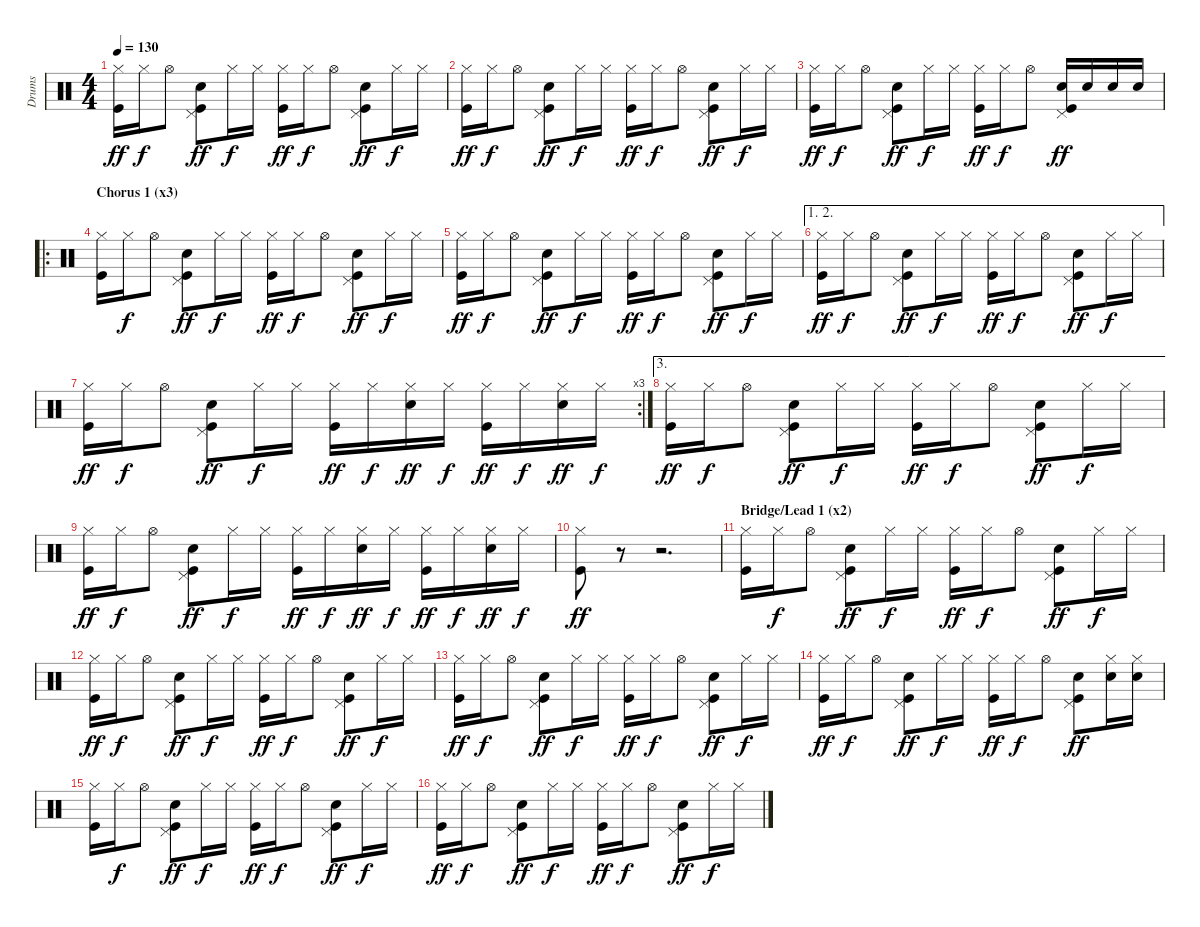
\track ("Drums" "Drums") {instrument percussion}
\staff {score}
\articulation defaults
\ts (4 4)
\tempo 130
\clef neutral
\ks c
("Hi-Hat (closed)" "Kick (hit)").16{dy ff} "Hi-Hat (closed)".16{dy f} "Hi-Hat (open)".8 ("Pedal Hi-Hat (hit)" "Electric Snare (hit)" "Kick (hit)").8{dy ff} "Hi-Hat (closed)".16{dy f} "Hi-Hat (closed)".16 ("Hi-Hat (closed)" "Kick (hit)").16{dy ff} "Hi-Hat (closed)".16{dy f} "Hi-Hat (open)".8 ("Pedal Hi-Hat (hit)" "Electric Snare (hit)" "Kick (hit)").8{dy ff} "Hi-Hat (closed)".16{dy f} "Hi-Hat (closed)".16 |
("Hi-Hat (closed)" "Kick (hit)").16{dy ff} "Hi-Hat (closed)".16{dy f} "Hi-Hat (open)".8 ("Pedal Hi-Hat (hit)" "Electric Snare (hit)" "Kick (hit)").8{dy ff} "Hi-Hat (closed)".16{dy f} "Hi-Hat (closed)".16 ("Hi-Hat (closed)" "Kick (hit)").16{dy ff} "Hi-Hat (closed)".16{dy f} "Hi-Hat (open)".8 ("Pedal Hi-Hat (hit)" "Electric Snare (hit)" "Kick (hit)").8{dy ff} "Hi-Hat (closed)".16{dy f} "Hi-Hat (closed)".16 |
("Hi-Hat (closed)" "Kick (hit)").16{dy ff} "Hi-Hat (closed)".16{dy f} "Hi-Hat (open)".8 ("Pedal Hi-Hat (hit)" "Electric Snare (hit)" "Kick (hit)").8{dy ff} "Hi-Hat (closed)".16{dy f} "Hi-Hat (closed)".16 ("Hi-Hat (closed)" "Kick (hit)").16{dy ff} "Hi-Hat (closed)".16{dy f} "Hi-Hat (open)".8 ("Pedal Hi-Hat (hit)" "Electric Snare (hit)" "Kick (hit)").16{dy ff} "Electric Snare (hit)".16 "Electric Snare (hit)".16 "Electric Snare (hit)".16 |
\ro
\section ("" "Chorus 1 (x3)")
("Hi-Hat (closed)" "Kick (hit)").16 "Hi-Hat (closed)".16{dy f} "Hi-Hat (open)".8 ("Pedal Hi-Hat (hit)" "Electric Snare (hit)" "Kick (hit)").8{dy ff} "Hi-Hat (closed)".16{dy f} "Hi-Hat (closed)".16 ("Hi-Hat (closed)" "Kick (hit)").16{dy ff} "Hi-Hat (closed)".16{dy f} "Hi-Hat (open)".8 ("Pedal Hi-Hat (hit)" "Electric Snare (hit)" "Kick (hit)").8{dy ff} "Hi-Hat (closed)".16{dy f} "Hi-Hat (closed)".16 |
("Hi-Hat (closed)" "Kick (hit)").16{dy ff} "Hi-Hat (closed)".16{dy f} "Hi-Hat (open)".8 ("Pedal Hi-Hat (hit)" "Electric Snare (hit)" "Kick (hit)").8{dy ff} "Hi-Hat (closed)".16{dy f} "Hi-Hat (closed)".16 ("Hi-Hat (closed)" "Kick (hit)").16{dy ff} "Hi-Hat (closed)".16{dy f} "Hi-Hat (open)".8 ("Pedal Hi-Hat (hit)" "Electric Snare (hit)" "Kick (hit)").8{dy ff} "Hi-Hat (closed)".16{dy f} "Hi-Hat (closed)".16 |
\ae (1 2)
("Hi-Hat (closed)" "Kick (hit)").16{dy ff} "Hi-Hat (closed)".16{dy f} "Hi-Hat (open)".8 ("Pedal Hi-Hat (hit)" "Electric Snare (hit)" "Kick (hit)").8{dy ff} "Hi-Hat (closed)".16{dy f} "Hi-Hat (closed)".16 ("Hi-Hat (closed)" "Kick (hit)").16{dy ff} "Hi-Hat (closed)".16{dy f} "Hi-Hat (open)".8 ("Pedal Hi-Hat (hit)" "Electric Snare (hit)" "Kick (hit)").8{dy ff} "Hi-Hat (closed)".16{dy f} "Hi-Hat (closed)".16 |
\rc 3
("Hi-Hat (closed)" "Kick (hit)").16{dy ff} "Hi-Hat (closed)".16{dy f} "Hi-Hat (open)".8 ("Pedal Hi-Hat (hit)" "Electric Snare (hit)" "Kick (hit)").8{dy ff} "Hi-Hat (closed)".16{dy f} "Hi-Hat (closed)".16 ("Hi-Hat (closed)" "Kick (hit)").16{dy ff} "Hi-Hat (closed)".16{dy f} ("Hi-Hat (closed)" "Electric Snare (hit)").16{dy ff} "Hi-Hat (closed)".16{dy f} ("Hi-Hat (closed)" "Kick (hit)").16{dy ff} "Hi-Hat (closed)".16{dy f} ("Hi-Hat (closed)" "Electric Snare (hit)").16{dy ff} "Hi-Hat (closed)".16{dy f} |
\ae 3
("Hi-Hat (closed)" "Kick (hit)").16{dy ff} "Hi-Hat (closed)".16{dy f} "Hi-Hat (open)".8 ("Pedal Hi-Hat (hit)" "Electric Snare (hit)" "Kick (hit)").8{dy ff} "Hi-Hat (closed)".16{dy f} "Hi-Hat (closed)".16 ("Hi-Hat (closed)" "Kick (hit)").16{dy ff} "Hi-Hat (closed)".16{dy f} "Hi-Hat (open)".8 ("Pedal Hi-Hat (hit)" "Electric Snare (hit)" "Kick (hit)").8{dy ff} "Hi-Hat (closed)".16{dy f} "Hi-Hat (closed)".16 |
("Hi-Hat (closed)" "Kick (hit)").16{dy ff} "Hi-Hat (closed)".16{dy f} "Hi-Hat (open)".8 ("Pedal Hi-Hat (hit)" "Electric Snare (hit)" "Kick (hit)").8{dy ff} "Hi-Hat (closed)".16{dy f} "Hi-Hat (closed)".16 ("Hi-Hat (closed)" "Kick (hit)").16{dy ff} "Hi-Hat (closed)".16{dy f} ("Hi-Hat (closed)" "Electric Snare (hit)").16{dy ff} "Hi-Hat (closed)".16{dy f} ("Hi-Hat (closed)" "Kick (hit)").16{dy ff} "Hi-Hat (closed)".16{dy f} ("Hi-Hat (closed)" "Electric Snare (hit)").16{dy ff} "Hi-Hat (closed)".16{dy f} |
("Hi-Hat (closed)" "Kick (hit)").8{dy ff} r.8 r.2{d} |
\section ("" "Bridge/Lead 1 (x2)")
("Hi-Hat (closed)" "Kick (hit)").16 "Hi-Hat (closed)".16{dy f} "Hi-Hat (open)".8 ("Pedal Hi-Hat (hit)" "Electric Snare (hit)" "Kick (hit)").8{dy ff} "Hi-Hat (closed)".16{dy f} "Hi-Hat (closed)".16 ("Hi-Hat (closed)" "Kick (hit)").16{dy ff} "Hi-Hat (closed)".16{dy f} "Hi-Hat (open)".8 ("Pedal Hi-Hat (hit)" "Electric Snare (hit)" "Kick (hit)").8{dy ff} "Hi-Hat (closed)".16{dy f} "Hi-Hat (closed)".16 |
("Hi-Hat (closed)" "Kick (hit)").16{dy ff} "Hi-Hat (closed)".16{dy f} "Hi-Hat (open)".8 ("Pedal Hi-Hat (hit)" "Electric Snare (hit)" "Kick (hit)").8{dy ff} "Hi-Hat (closed)".16{dy f} "Hi-Hat (closed)".16 ("Hi-Hat (closed)" "Kick (hit)").16{dy ff} "Hi-Hat (closed)".16{dy f} "Hi-Hat (open)".8 ("Pedal Hi-Hat (hit)" "Electric Snare (hit)" "Kick (hit)").8{dy ff} "Hi-Hat (closed)".16{dy f} "Hi-Hat (closed)".16 |
("Hi-Hat (closed)" "Kick (hit)").16{dy ff} "Hi-Hat (closed)".16{dy f} "Hi-Hat (open)".8 ("Pedal Hi-Hat (hit)" "Electric Snare (hit)" "Kick (hit)").8{dy ff} "Hi-Hat (closed)".16{dy f} "Hi-Hat (closed)".16 ("Hi-Hat (closed)" "Kick (hit)").16{dy ff} "Hi-Hat (closed)".16{dy f} "Hi-Hat (open)".8 ("Pedal Hi-Hat (hit)" "Electric Snare (hit)" "Kick (hit)").8{dy ff} "Hi-Hat (closed)".16{dy f} "Hi-Hat (closed)".16 |
("Hi-Hat (closed)" "Kick (hit)").16{dy ff} "Hi-Hat (closed)".16{dy f} "Hi-Hat (open)".8 ("Pedal Hi-Hat (hit)" "Electric Snare (hit)" "Kick (hit)").8{dy ff} "Hi-Hat (closed)".16{dy f} "Hi-Hat (closed)".16 ("Hi-Hat (closed)" "Kick (hit)").16{dy ff} "Hi-Hat (closed)".16{dy f} "Hi-Hat (open)".8 ("Pedal Hi-Hat (hit)" "Electric Snare (hit)" "Kick (hit)").8{dy ff} ("Hi-Hat (closed)" "Electric Snare (hit)").16 ("Hi-Hat (closed)" "Electric Snare (hit)").16 |
("Hi-Hat (closed)" "Kick (hit)").16 "Hi-Hat (closed)".16{dy f} "Hi-Hat (open)".8 ("Pedal Hi-Hat (hit)" "Electric Snare (hit)" "Kick (hit)").8{dy ff} "Hi-Hat (closed)".16{dy f} "Hi-Hat (closed)".16 ("Hi-Hat (closed)" "Kick (hit)").16{dy ff} "Hi-Hat (closed)".16{dy f} "Hi-Hat (open)".8 ("Pedal Hi-Hat (hit)" "Electric Snare (hit)" "Kick (hit)").8{dy ff} "Hi-Hat (closed)".16{dy f} "Hi-Hat (closed)".16 |
("Hi-Hat (closed)" "Kick (hit)").16{dy ff} "Hi-Hat (closed)".16{dy f} "Hi-Hat (open)".8 ("Pedal Hi-Hat (hit)" "Electric Snare (hit)" "Kick (hit)").8{dy ff} "Hi-Hat (closed)".16{dy f} "Hi-Hat (closed)".16 ("Hi-Hat (closed)" "Kick (hit)").16{dy ff} "Hi-Hat (closed)".16{dy f} "Hi-Hat (open)".8 ("Pedal Hi-Hat (hit)" "Electric Snare (hit)" "Kick (hit)").8{dy ff} "Hi-Hat (closed)".16{dy f} "Hi-Hat (closed)".16
